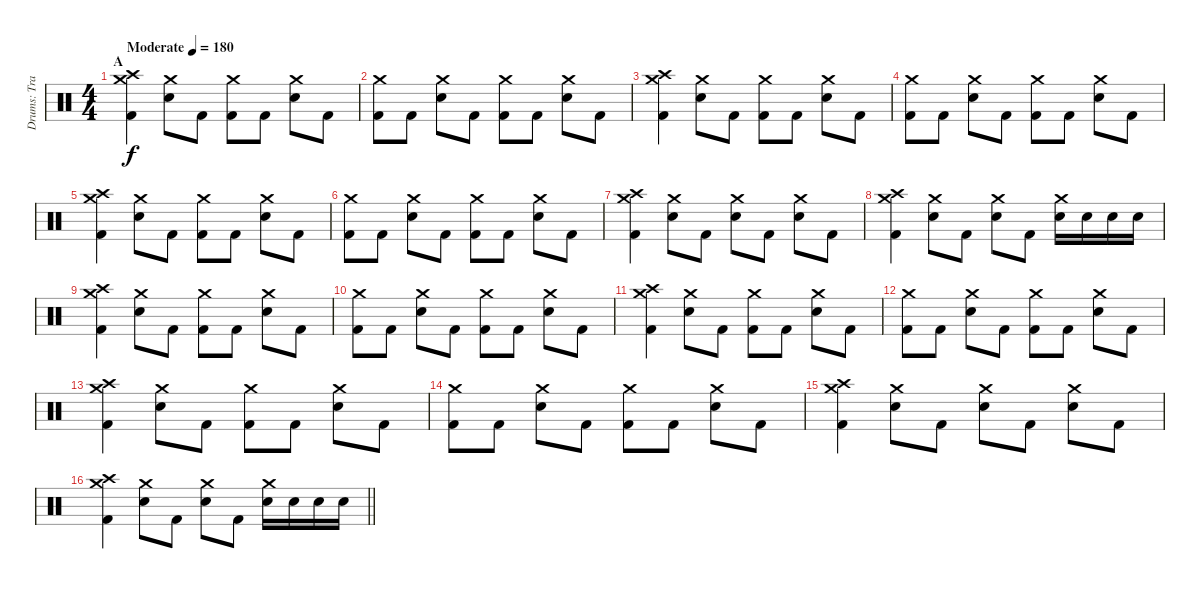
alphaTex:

\track ("Drums: Travis Clarke" "Drums: Tra") {instrument percussion}
\staff {score}
\articulation defaults
\ts (4 4)
\section ("" "A")
\tempo (180 "Moderate")
\clef neutral
\ks c
("Kick (hit) 2" "Crash high (hit)" "Crash medium (hit)").4{dy f} ("Snare (hit) 2" "Crash medium (hit)").8 "Kick (hit) 2".8 ("Kick (hit) 2" "Crash medium (hit)").8 "Kick (hit) 2".8 ("Snare (hit) 2" "Crash medium (hit)").8 "Kick (hit) 2".8 |
("Kick (hit) 2" "Crash medium (hit)").8 "Kick (hit) 2".8 ("Snare (hit) 2" "Crash medium (hit)").8 "Kick (hit) 2".8 ("Kick (hit) 2" "Crash medium (hit)").8 "Kick (hit) 2".8 ("Snare (hit) 2" "Crash medium (hit)").8 "Kick (hit) 2".8 |
("Kick (hit) 2" "Crash high (hit)" "Crash medium (hit)").4 ("Snare (hit) 2" "Crash medium (hit)").8 "Kick (hit) 2".8 ("Kick (hit) 2" "Crash medium (hit)").8 "Kick (hit) 2".8 ("Snare (hit) 2" "Crash medium (hit)").8 "Kick (hit) 2".8 |
("Kick (hit) 2" "Crash medium (hit)").8 "Kick (hit) 2".8 ("Snare (hit) 2" "Crash medium (hit)").8 "Kick (hit) 2".8 ("Kick (hit) 2" "Crash medium (hit)").8 "Kick (hit) 2".8 ("Snare (hit) 2" "Crash medium (hit)").8 "Kick (hit) 2".8 |
("Kick (hit) 2" "Crash high (hit)" "Crash medium (hit)").4 ("Snare (hit) 2" "Crash medium (hit)").8 "Kick (hit) 2".8 ("Kick (hit) 2" "Crash medium (hit)").8 "Kick (hit) 2".8 ("Snare (hit) 2" "Crash medium (hit)").8 "Kick (hit) 2".8 |
("Kick (hit) 2" "Crash medium (hit)").8 "Kick (hit) 2".8 ("Snare (hit) 2" "Crash medium (hit)").8 "Kick (hit) 2".8 ("Kick (hit) 2" "Crash medium (hit)").8 "Kick (hit) 2".8 ("Snare (hit) 2" "Crash medium (hit)").8 "Kick (hit) 2".8 |
("Kick (hit) 2" "Crash high (hit)" "Crash medium (hit)").4 ("Snare (hit) 2" "Crash medium (hit)").8 "Kick (hit) 2".8 ("Snare (hit) 2" "Crash medium (hit)").8 "Kick (hit) 2".8 ("Snare (hit) 2" "Crash medium (hit)").8 "Kick (hit) 2".8 |
("Kick (hit) 2" "Crash high (hit)" "Crash medium (hit)").4 ("Snare (hit) 2" "Crash medium (hit)").8 "Kick (hit) 2".8 ("Snare (hit) 2" "Crash medium (hit)").8 "Kick (hit) 2".8 ("Snare (hit) 2" "Crash medium (hit)").16 "Snare (hit) 2".16 "Snare (hit) 2".16 "Snare (hit) 2".16 |
("Kick (hit) 2" "Crash high (hit)" "Crash medium (hit)").4 ("Snare (hit) 2" "Crash medium (hit)").8 "Kick (hit) 2".8 ("Kick (hit) 2" "Crash medium (hit)").8 "Kick (hit) 2".8 ("Snare (hit) 2" "Crash medium (hit)").8 "Kick (hit) 2".8 |
("Kick (hit) 2" "Crash medium (hit)").8 "Kick (hit) 2".8 ("Snare (hit) 2" "Crash medium (hit)").8 "Kick (hit) 2".8 ("Kick (hit) 2" "Crash medium (hit)").8 "Kick (hit) 2".8 ("Snare (hit) 2" "Crash medium (hit)").8 "Kick (hit) 2".8 |
("Kick (hit) 2" "Crash high (hit)" "Crash medium (hit)").4 ("Snare (hit) 2" "Crash medium (hit)").8 "Kick (hit) 2".8 ("Kick (hit) 2" "Crash medium (hit)").8 "Kick (hit) 2".8 ("Snare (hit) 2" "Crash medium (hit)").8 "Kick (hit) 2".8 |
("Kick (hit) 2" "Crash medium (hit)").8 "Kick (hit) 2".8 ("Snare (hit) 2" "Crash medium (hit)").8 "Kick (hit) 2".8 ("Kick (hit) 2" "Crash medium (hit)").8 "Kick (hit) 2".8 ("Snare (hit) 2" "Crash medium (hit)").8 "Kick (hit) 2".8 |
("Kick (hit) 2" "Crash high (hit)" "Crash medium (hit)").4 ("Snare (hit) 2" "Crash medium (hit)").8 "Kick (hit) 2".8 ("Kick (hit) 2" "Crash medium (hit)").8 "Kick (hit) 2".8 ("Snare (hit) 2" "Crash medium (hit)").8 "Kick (hit) 2".8 |
("Kick (hit) 2" "Crash medium (hit)").8 "Kick (hit) 2".8 ("Snare (hit) 2" "Crash medium (hit)").8 "Kick (hit) 2".8 ("Kick (hit) 2" "Crash medium (hit)").8 "Kick (hit) 2".8 ("Snare (hit) 2" "Crash medium (hit)").8 "Kick (hit) 2".8 |
("Kick (hit) 2" "Crash high (hit)" "Crash medium (hit)").4 ("Snare (hit) 2" "Crash medium (hit)").8 "Kick (hit) 2".8 ("Snare (hit) 2" "Crash medium (hit)").8 "Kick (hit) 2".8 ("Snare (hit) 2" "Crash medium (hit)").8 "Kick (hit) 2".8 |
\barLineRight lightlight
("Kick (hit) 2" "Crash high (hit)" "Crash medium (hit)").4 ("Snare (hit) 2" "Crash medium (hit)").8 "Kick (hit) 2".8 ("Snare (hit) 2" "Crash medium (hit)").8 "Kick (hit) 2".8 ("Snare (hit) 2" "Crash medium (hit)").16 "Snare (hit) 2".16 "Snare (hit) 2".16 "Snare (hit) 2".16
